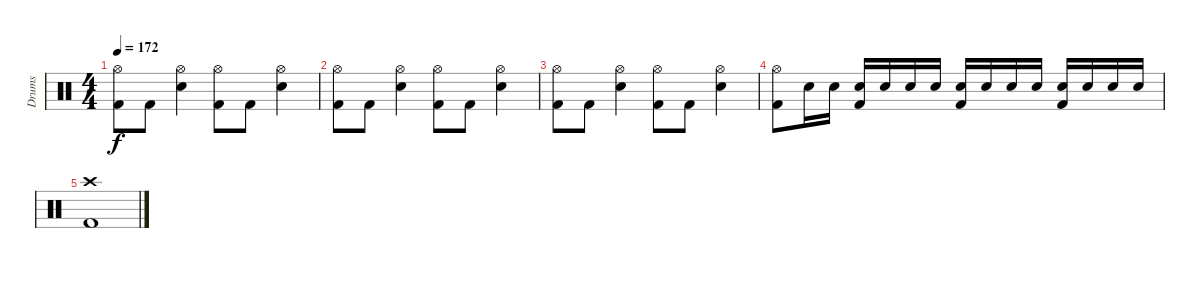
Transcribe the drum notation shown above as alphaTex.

\track ("Drums" "Drums") {instrument percussion}
\staff {score}
\articulation defaults
\ts (4 4)
\tempo 172
\clef neutral
\ks c
("Hi-Hat (open)" "Kick (hit) 2").8{dy f} "Kick (hit) 2".8 ("Hi-Hat (open)" "Electric Snare (hit)").4 ("Hi-Hat (open)" "Kick (hit) 2").8 "Kick (hit) 2".8 ("Hi-Hat (open)" "Electric Snare (hit)").4 |
("Hi-Hat (open)" "Kick (hit) 2").8 "Kick (hit) 2".8 ("Hi-Hat (open)" "Electric Snare (hit)").4 ("Hi-Hat (open)" "Kick (hit) 2").8 "Kick (hit) 2".8 ("Hi-Hat (open)" "Electric Snare (hit)").4 |
("Hi-Hat (open)" "Kick (hit) 2").8 "Kick (hit) 2".8 ("Hi-Hat (open)" "Electric Snare (hit)").4 ("Hi-Hat (open)" "Kick (hit) 2").8 "Kick (hit) 2".8 ("Hi-Hat (open)" "Electric Snare (hit)").4 |
("Hi-Hat (open)" "Kick (hit) 2").8 "Electric Snare (hit)".16 "Electric Snare (hit)".16 ("Electric Snare (hit)" "Kick (hit) 2").16 "Electric Snare (hit)".16 "Electric Snare (hit)".16 "Electric Snare (hit)".16 ("Electric Snare (hit)" "Kick (hit) 2").16 "Electric Snare (hit)".16 "Electric Snare (hit)".16 "Electric Snare (hit)".16 ("Electric Snare (hit)" "Kick (hit) 2").16 "Electric Snare (hit)".16 "Electric Snare (hit)".16 "Electric Snare (hit)".16 |
("Crash high (hit)" "Kick (hit) 2").1
